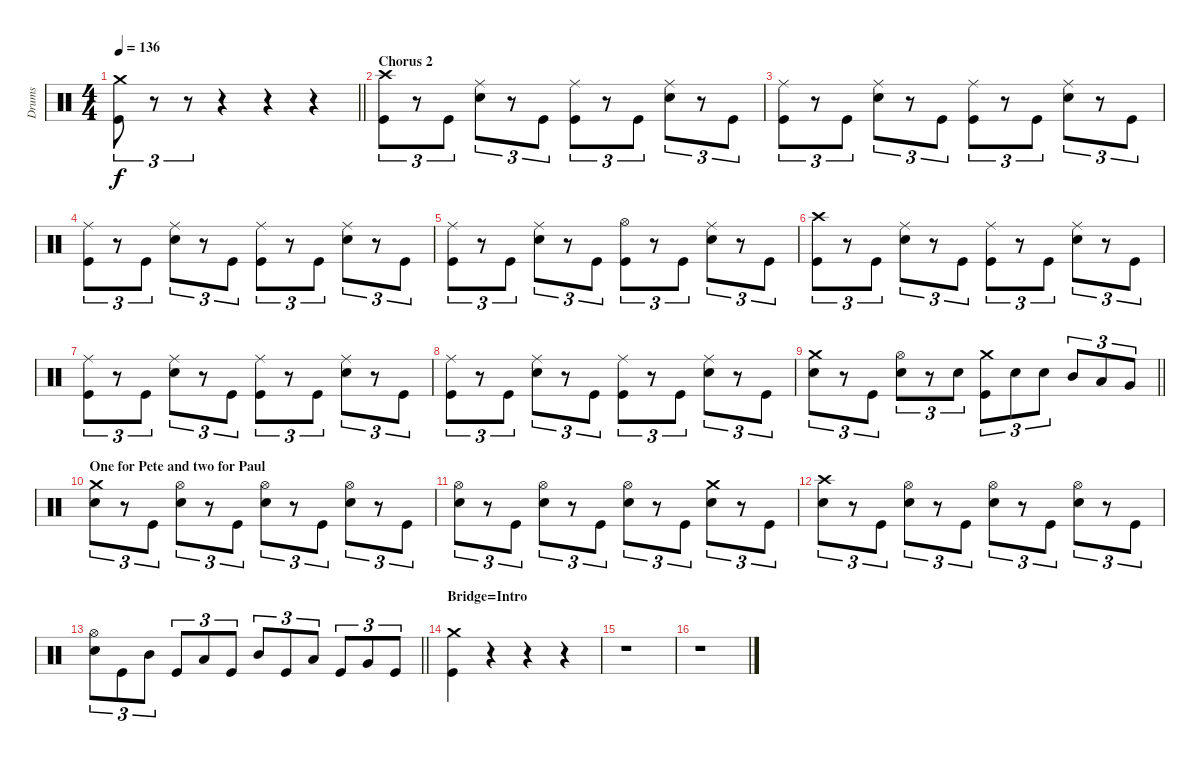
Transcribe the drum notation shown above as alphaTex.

\track ("Drums" "Drums") {instrument percussion}
\staff {score}
\articulation defaults
\ts (4 4)
\tempo 136
\clef neutral
\barLineRight lightlight
\ks c
("Crash medium (hit)" "Kick (hit)").8{tu (3 2) dy f} r.8{tu (3 2)} r.8{tu (3 2)} r.4 r.4 r.4 |
\section ("" "Chorus 2")
("Crash high (hit)" "Kick (hit)").8{tu (3 2)} r.8{tu (3 2)} "Kick (hit)".8{tu (3 2)} ("Ride (middle)" "Electric Snare (hit)").8{tu (3 2)} r.8{tu (3 2)} "Kick (hit)".8{tu (3 2)} ("Ride (middle)" "Kick (hit)").8{tu (3 2)} r.8{tu (3 2)} "Kick (hit)".8{tu (3 2)} ("Ride (middle)" "Electric Snare (hit)").8{tu (3 2)} r.8{tu (3 2)} "Kick (hit)".8{tu (3 2)} |
("Ride (middle)" "Kick (hit)").8{tu (3 2)} r.8{tu (3 2)} "Kick (hit)".8{tu (3 2)} ("Ride (middle)" "Electric Snare (hit)").8{tu (3 2)} r.8{tu (3 2)} "Kick (hit)".8{tu (3 2)} ("Ride (middle)" "Kick (hit)").8{tu (3 2)} r.8{tu (3 2)} "Kick (hit)".8{tu (3 2)} ("Ride (middle)" "Electric Snare (hit)").8{tu (3 2)} r.8{tu (3 2)} "Kick (hit)".8{tu (3 2)} |
("Ride (middle)" "Kick (hit)").8{tu (3 2)} r.8{tu (3 2)} "Kick (hit)".8{tu (3 2)} ("Ride (middle)" "Electric Snare (hit)").8{tu (3 2)} r.8{tu (3 2)} "Kick (hit)".8{tu (3 2)} ("Ride (middle)" "Kick (hit)").8{tu (3 2)} r.8{tu (3 2)} "Kick (hit)".8{tu (3 2)} ("Ride (middle)" "Electric Snare (hit)").8{tu (3 2)} r.8{tu (3 2)} "Kick (hit)".8{tu (3 2)} |
("Ride (middle)" "Kick (hit)").8{tu (3 2)} r.8{tu (3 2)} "Kick (hit)".8{tu (3 2)} ("Ride (middle)" "Electric Snare (hit)").8{tu (3 2)} r.8{tu (3 2)} "Kick (hit)".8{tu (3 2)} ("Hi-Hat (open)" "Kick (hit)").8{tu (3 2)} r.8{tu (3 2)} "Kick (hit)".8{tu (3 2)} ("Ride (middle)" "Electric Snare (hit)").8{tu (3 2)} r.8{tu (3 2)} "Kick (hit)".8{tu (3 2)} |
("Crash high (hit)" "Kick (hit)").8{tu (3 2)} r.8{tu (3 2)} "Kick (hit)".8{tu (3 2)} ("Ride (middle)" "Electric Snare (hit)").8{tu (3 2)} r.8{tu (3 2)} "Kick (hit)".8{tu (3 2)} ("Ride (middle)" "Kick (hit)").8{tu (3 2)} r.8{tu (3 2)} "Kick (hit)".8{tu (3 2)} ("Ride (middle)" "Electric Snare (hit)").8{tu (3 2)} r.8{tu (3 2)} "Kick (hit)".8{tu (3 2)} |
("Ride (middle)" "Kick (hit)").8{tu (3 2)} r.8{tu (3 2)} "Kick (hit)".8{tu (3 2)} ("Ride (middle)" "Electric Snare (hit)").8{tu (3 2)} r.8{tu (3 2)} "Kick (hit)".8{tu (3 2)} ("Ride (middle)" "Kick (hit)").8{tu (3 2)} r.8{tu (3 2)} "Kick (hit)".8{tu (3 2)} ("Ride (middle)" "Electric Snare (hit)").8{tu (3 2)} r.8{tu (3 2)} "Kick (hit)".8{tu (3 2)} |
("Ride (middle)" "Kick (hit)").8{tu (3 2)} r.8{tu (3 2)} "Kick (hit)".8{tu (3 2)} ("Ride (middle)" "Electric Snare (hit)").8{tu (3 2)} r.8{tu (3 2)} "Kick (hit)".8{tu (3 2)} ("Ride (middle)" "Kick (hit)").8{tu (3 2)} r.8{tu (3 2)} "Kick (hit)".8{tu (3 2)} ("Ride (middle)" "Electric Snare (hit)").8{tu (3 2)} r.8{tu (3 2)} "Kick (hit)".8{tu (3 2)} |
\barLineRight lightlight
("Crash medium (hit)" "Electric Snare (hit)").8{tu (3 2)} r.8{tu (3 2)} "Kick (hit)".8{tu (3 2)} ("Hi-Hat (open)" "Electric Snare (hit)").8{tu (3 2)} r.8{tu (3 2)} "Electric Snare (hit)".8{tu (3 2)} ("Crash medium (hit)" "Kick (hit)").8{tu (3 2)} "Electric Snare (hit)".8{tu (3 2)} "Electric Snare (hit)".8{tu (3 2)} "Mid Tom (hit)".8{tu (3 2)} "Low Tom (hit)".8{tu (3 2)} "Very Low Tom (hit)".8{tu (3 2)} |
\section ("" "One for Pete and two for Paul")
("Crash medium (hit)" "Electric Snare (hit)").8{tu (3 2)} r.8{tu (3 2)} "Kick (hit)".8{tu (3 2)} ("Hi-Hat (open)" "Electric Snare (hit)").8{tu (3 2)} r.8{tu (3 2)} "Kick (hit)".8{tu (3 2)} ("Hi-Hat (open)" "Electric Snare (hit)").8{tu (3 2)} r.8{tu (3 2)} "Kick (hit)".8{tu (3 2)} ("Hi-Hat (open)" "Electric Snare (hit)").8{tu (3 2)} r.8{tu (3 2)} "Kick (hit)".8{tu (3 2)} |
("Hi-Hat (open)" "Electric Snare (hit)").8{tu (3 2)} r.8{tu (3 2)} "Kick (hit)".8{tu (3 2)} ("Hi-Hat (open)" "Electric Snare (hit)").8{tu (3 2)} r.8{tu (3 2)} "Kick (hit)".8{tu (3 2)} ("Hi-Hat (open)" "Electric Snare (hit)").8{tu (3 2)} r.8{tu (3 2)} "Kick (hit)".8{tu (3 2)} ("Crash medium (hit)" "Electric Snare (hit)").8{tu (3 2)} r.8{tu (3 2)} "Kick (hit)".8{tu (3 2)} |
("Crash high (hit)" "Electric Snare (hit)").8{tu (3 2)} r.8{tu (3 2)} "Kick (hit)".8{tu (3 2)} ("Hi-Hat (open)" "Electric Snare (hit)").8{tu (3 2)} r.8{tu (3 2)} "Kick (hit)".8{tu (3 2)} ("Hi-Hat (open)" "Electric Snare (hit)").8{tu (3 2)} r.8{tu (3 2)} "Kick (hit)".8{tu (3 2)} ("Hi-Hat (open)" "Electric Snare (hit)").8{tu (3 2)} r.8{tu (3 2)} "Kick (hit)".8{tu (3 2)} |
\barLineRight lightlight
("Hi-Hat (open)" "Electric Snare (hit)").8{tu (3 2)} "Kick (hit)".8{tu (3 2)} "Mid Tom (hit)".8{tu (3 2)} "Kick (hit)".8{tu (3 2)} "Low Tom (hit)".8{tu (3 2)} "Kick (hit)".8{tu (3 2)} "Mid Tom (hit)".8{tu (3 2)} "Kick (hit)".8{tu (3 2)} "Low Tom (hit)".8{tu (3 2)} "Kick (hit)".8{tu (3 2)} "Very Low Tom (hit)".8{tu (3 2)} "Kick (hit)".8{tu (3 2)} |
\section ("" "Bridge=Intro")
("Crash medium (hit)" "Kick (hit)").4 r.4 r.4 r.4 |
r.1 |
r.1
